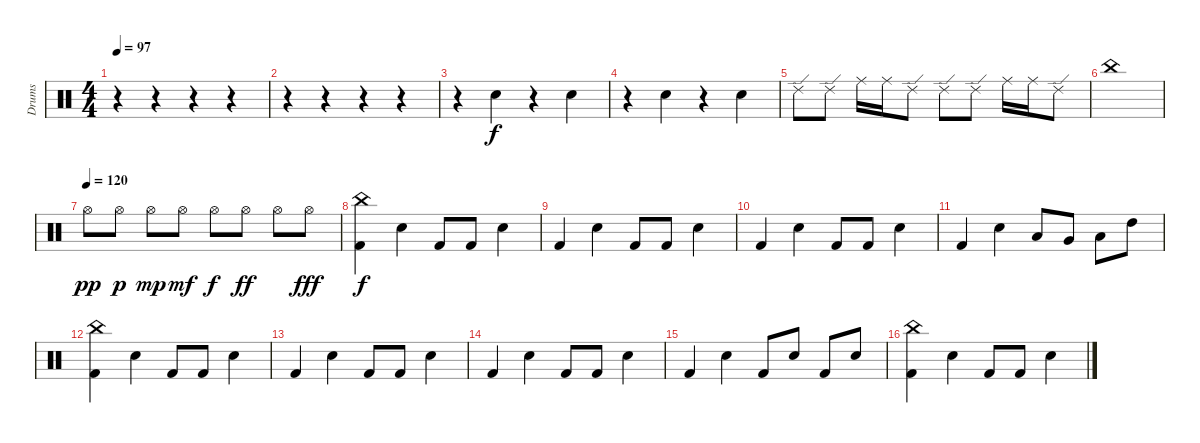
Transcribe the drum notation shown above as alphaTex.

\track ("Drums" "Drums") {instrument percussion}
\staff {score}
\articulation defaults
\ts (4 4)
\tempo 97
\clef neutral
\ks c
r.4{dy f} r.4 r.4 r.4 |
r.4 r.4 r.4 r.4 |
r.4 "Snare (hit) 2".4 r.4 "Snare (hit) 2".4 |
r.4 "Snare (hit) 2".4 r.4 "Snare (hit) 2".4 |
"Ride (edge) 2".8 "Ride (edge) 2".8 "Ride (middle)".16 "Ride (middle)".16 "Ride (edge) 2".8 "Ride (edge) 2".8 "Ride (edge) 2".8 "Ride (middle)".16 "Ride (middle)".16 "Ride (edge) 2".8 |
"China (hit)".1 |
\tempo (120)
"Hi-Hat (open)".8{dy pp} "Hi-Hat (open)".8{dy p} "Hi-Hat (open)".8{dy mp} "Hi-Hat (open)".8{dy mf} "Hi-Hat (open)".8{dy f} "Hi-Hat (open)".8{dy ff} "Hi-Hat (open)".8 "Hi-Hat (open)".8{dy fff} |
("China (hit)" "Kick (hit) 2").4{dy f} "Snare (hit) 2".4 "Kick (hit) 2".8 "Kick (hit) 2".8 "Snare (hit) 2".4 |
"Kick (hit) 2".4 "Snare (hit) 2".4 "Kick (hit) 2".8 "Kick (hit) 2".8 "Snare (hit) 2".4 |
"Kick (hit) 2".4 "Snare (hit) 2".4 "Kick (hit) 2".8 "Kick (hit) 2".8 "Snare (hit) 2".4 |
"Kick (hit) 2".4 "Snare (hit) 2".4 "Low Tom (hit)".8 "Very Low Tom (hit)".8 "Low Floor Tom (hit)".8 "High Tom (hit)".8 |
("China (hit)" "Kick (hit) 2").4 "Snare (hit) 2".4 "Kick (hit) 2".8 "Kick (hit) 2".8 "Snare (hit) 2".4 |
"Kick (hit) 2".4 "Snare (hit) 2".4 "Kick (hit) 2".8 "Kick (hit) 2".8 "Snare (hit) 2".4 |
"Kick (hit) 2".4 "Snare (hit) 2".4 "Kick (hit) 2".8 "Kick (hit) 2".8 "Snare (hit) 2".4 |
"Kick (hit) 2".4 "Snare (hit) 2".4 "Kick (hit) 2".8 "Snare (hit) 2".8 "Kick (hit) 2".8 "Snare (hit) 2".8 |
("China (hit)" "Kick (hit) 2").4 "Snare (hit) 2".4 "Kick (hit) 2".8 "Kick (hit) 2".8 "Snare (hit) 2".4
